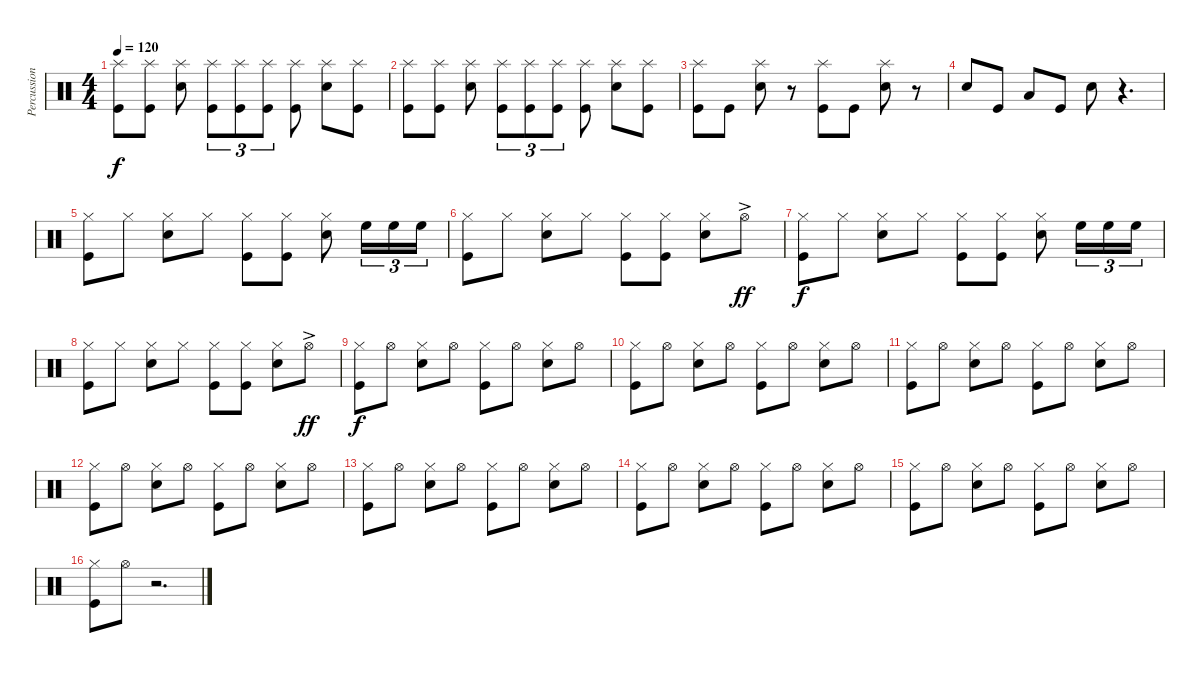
\track ("Percussion" "Percussion") {instrument percussion}
\staff {score}
\articulation defaults
\ts (4 4)
\tempo 120
\clef neutral
\ks c
("Splash (hit)" "Kick (hit)").8{dy f} ("Splash (hit)" "Kick (hit)").8 ("Splash (hit)" "Snare (hit) 2").8 ("Splash (hit)" "Kick (hit)").8{tu (3 2)} ("Splash (hit)" "Kick (hit)").8{tu (3 2)} ("Splash (hit)" "Kick (hit)").8{tu (3 2)} ("Splash (hit)" "Kick (hit)").8 ("Splash (hit)" "Snare (hit) 2").8 ("Splash (hit)" "Kick (hit)").8 |
("Splash (hit)" "Kick (hit)").8 ("Splash (hit)" "Kick (hit)").8 ("Splash (hit)" "Snare (hit) 2").8 ("Splash (hit)" "Kick (hit)").8{tu (3 2)} ("Splash (hit)" "Kick (hit)").8{tu (3 2)} ("Splash (hit)" "Kick (hit)").8{tu (3 2)} ("Splash (hit)" "Kick (hit)").8 ("Splash (hit)" "Snare (hit) 2").8 ("Splash (hit)" "Kick (hit)").8 |
("Splash (hit)" "Kick (hit)").8 "Kick (hit)".8 ("Splash (hit)" "Snare (hit) 2").8 r.8 ("Splash (hit)" "Kick (hit)").8 "Kick (hit)".8 ("Splash (hit)" "Snare (hit) 2").8 r.8 |
"Snare (hit) 2".8 "Kick (hit)".8 "Low Floor Tom (hit)".8 "Kick (hit)".8 "Snare (hit) 2".8 r.4{d} |
("Hi-Hat (closed)" "Kick (hit)").8 "Hi-Hat (closed)".8 ("Hi-Hat (closed)" "Snare (hit) 2").8 "Hi-Hat (closed)".8 ("Hi-Hat (closed)" "Kick (hit)").8 ("Hi-Hat (closed)" "Kick (hit)").8 ("Hi-Hat (closed)" "Snare (hit) 2").8 "High Floor Tom (hit)".16{tu (3 2)} "High Floor Tom (hit)".16{tu (3 2)} "High Floor Tom (hit)".16{tu (3 2)} |
("Hi-Hat (closed)" "Kick (hit)").8 "Hi-Hat (closed)".8 ("Hi-Hat (closed)" "Snare (hit) 2").8 "Hi-Hat (closed)".8 ("Hi-Hat (closed)" "Kick (hit)").8 ("Hi-Hat (closed)" "Kick (hit)").8 ("Hi-Hat (closed)" "Snare (hit) 2").8 "Hi-Hat (open)"{ac}.8{dy ff} |
("Hi-Hat (closed)" "Kick (hit)").8{dy f} "Hi-Hat (closed)".8 ("Hi-Hat (closed)" "Snare (hit) 2").8 "Hi-Hat (closed)".8 ("Hi-Hat (closed)" "Kick (hit)").8 ("Hi-Hat (closed)" "Kick (hit)").8 ("Hi-Hat (closed)" "Snare (hit) 2").8 "High Floor Tom (hit)".16{tu (3 2)} "High Floor Tom (hit)".16{tu (3 2)} "High Floor Tom (hit)".16{tu (3 2)} |
("Hi-Hat (closed)" "Kick (hit)").8 "Hi-Hat (closed)".8 ("Hi-Hat (closed)" "Snare (hit) 2").8 "Hi-Hat (closed)".8 ("Hi-Hat (closed)" "Kick (hit)").8 ("Hi-Hat (closed)" "Kick (hit)").8 ("Hi-Hat (closed)" "Snare (hit) 2").8 "Hi-Hat (open)"{ac}.8{dy ff} |
("Hi-Hat (closed)" "Kick (hit)").8{dy f} "Hi-Hat (open)".8 ("Hi-Hat (closed)" "Snare (hit) 2").8 "Hi-Hat (open)".8 ("Hi-Hat (closed)" "Kick (hit)").8 "Hi-Hat (open)".8 ("Hi-Hat (closed)" "Snare (hit) 2").8 "Hi-Hat (open)".8 |
("Hi-Hat (closed)" "Kick (hit)").8 "Hi-Hat (open)".8 ("Hi-Hat (closed)" "Snare (hit) 2").8 "Hi-Hat (open)".8 ("Hi-Hat (closed)" "Kick (hit)").8 "Hi-Hat (open)".8 ("Hi-Hat (closed)" "Snare (hit) 2").8 "Hi-Hat (open)".8 |
("Hi-Hat (closed)" "Kick (hit)").8 "Hi-Hat (open)".8 ("Hi-Hat (closed)" "Snare (hit) 2").8 "Hi-Hat (open)".8 ("Hi-Hat (closed)" "Kick (hit)").8 "Hi-Hat (open)".8 ("Hi-Hat (closed)" "Snare (hit) 2").8 "Hi-Hat (open)".8 |
("Hi-Hat (closed)" "Kick (hit)").8 "Hi-Hat (open)".8 ("Hi-Hat (closed)" "Snare (hit) 2").8 "Hi-Hat (open)".8 ("Hi-Hat (closed)" "Kick (hit)").8 "Hi-Hat (open)".8 ("Hi-Hat (closed)" "Snare (hit) 2").8 "Hi-Hat (open)".8 |
("Hi-Hat (closed)" "Kick (hit)").8 "Hi-Hat (open)".8 ("Hi-Hat (closed)" "Snare (hit) 2").8 "Hi-Hat (open)".8 ("Hi-Hat (closed)" "Kick (hit)").8 "Hi-Hat (open)".8 ("Hi-Hat (closed)" "Snare (hit) 2").8 "Hi-Hat (open)".8 |
("Hi-Hat (closed)" "Kick (hit)").8 "Hi-Hat (open)".8 ("Hi-Hat (closed)" "Snare (hit) 2").8 "Hi-Hat (open)".8 ("Hi-Hat (closed)" "Kick (hit)").8 "Hi-Hat (open)".8 ("Hi-Hat (closed)" "Snare (hit) 2").8 "Hi-Hat (open)".8 |
("Hi-Hat (closed)" "Kick (hit)").8 "Hi-Hat (open)".8 ("Hi-Hat (closed)" "Snare (hit) 2").8 "Hi-Hat (open)".8 ("Hi-Hat (closed)" "Kick (hit)").8 "Hi-Hat (open)".8 ("Hi-Hat (closed)" "Snare (hit) 2").8 "Hi-Hat (open)".8 |
("Hi-Hat (closed)" "Kick (hit)").8 "Hi-Hat (open)".8 r.2{d}
